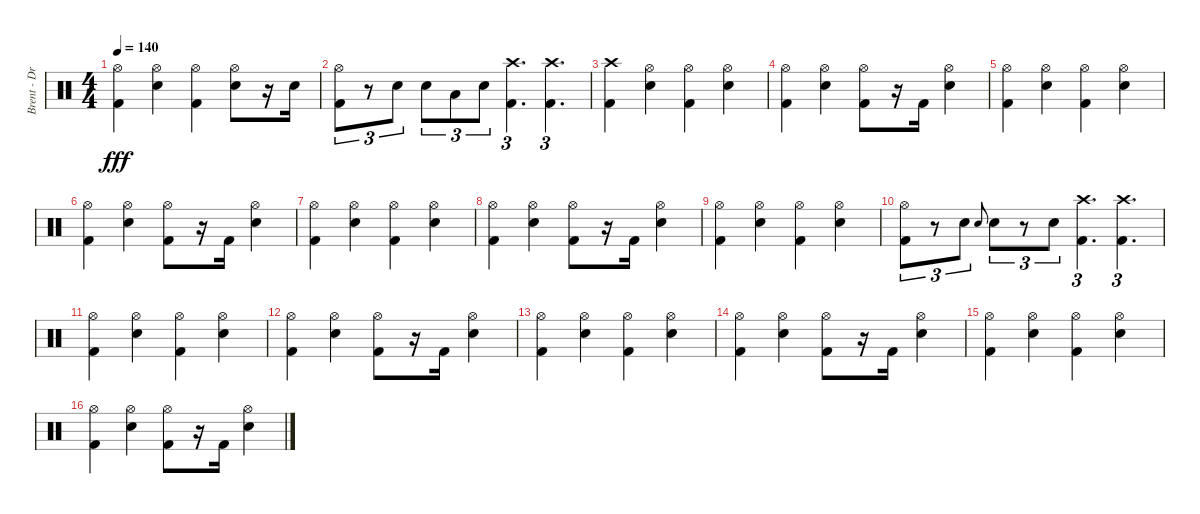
\track ("Brent - Drums" "Brent - Dr") {instrument percussion}
\staff {score}
\articulation defaults
\ts (4 4)
\tempo 140
\clef neutral
\ks c
("Hi-Hat (open)" "Kick (hit) 2").4{dy fff} ("Hi-Hat (open)" "Snare (hit) 2").4 ("Hi-Hat (open)" "Kick (hit) 2").4 ("Hi-Hat (open)" "Snare (hit) 2").8 r.16 "Snare (hit) 2".16 |
("Hi-Hat (open)" "Kick (hit) 2").8{tu (3 2)} r.8{tu (3 2)} "Snare (hit) 2".8{tu (3 2)} "Snare (hit) 2".8{tu (3 2)} "Low Tom (hit)".8{tu (3 2)} "Snare (hit) 2".8{tu (3 2)} ("Crash high (hit)" "Kick (hit) 2").4{d tu (3 2)} ("Crash high (hit)" "Kick (hit) 2").4{d tu (3 2)} |
("Crash high (hit)" "Kick (hit) 2").4 ("Hi-Hat (open)" "Snare (hit) 2").4 ("Hi-Hat (open)" "Kick (hit) 2").4 ("Hi-Hat (open)" "Snare (hit) 2").4 |
("Hi-Hat (open)" "Kick (hit) 2").4 ("Hi-Hat (open)" "Snare (hit) 2").4 ("Hi-Hat (open)" "Kick (hit) 2").8 r.16 "Kick (hit) 2".16 ("Hi-Hat (open)" "Snare (hit) 2").4 |
("Hi-Hat (open)" "Kick (hit) 2").4 ("Hi-Hat (open)" "Snare (hit) 2").4 ("Hi-Hat (open)" "Kick (hit) 2").4 ("Hi-Hat (open)" "Snare (hit) 2").4 |
("Hi-Hat (open)" "Kick (hit) 2").4 ("Hi-Hat (open)" "Snare (hit) 2").4 ("Hi-Hat (open)" "Kick (hit) 2").8 r.16 "Kick (hit) 2".16 ("Hi-Hat (open)" "Snare (hit) 2").4 |
("Hi-Hat (open)" "Kick (hit) 2").4 ("Hi-Hat (open)" "Snare (hit) 2").4 ("Hi-Hat (open)" "Kick (hit) 2").4 ("Hi-Hat (open)" "Snare (hit) 2").4 |
("Hi-Hat (open)" "Kick (hit) 2").4 ("Hi-Hat (open)" "Snare (hit) 2").4 ("Hi-Hat (open)" "Kick (hit) 2").8 r.16 "Kick (hit) 2".16 ("Hi-Hat (open)" "Snare (hit) 2").4 |
("Hi-Hat (open)" "Kick (hit) 2").4 ("Hi-Hat (open)" "Snare (hit) 2").4 ("Hi-Hat (open)" "Kick (hit) 2").4 ("Hi-Hat (open)" "Snare (hit) 2").4 |
("Hi-Hat (open)" "Kick (hit) 2").8{tu (3 2)} r.8{tu (3 2)} "Snare (hit) 2".8{tu (3 2)} "Snare (hit) 2".8{gr onbeat} "Snare (hit) 2".8{tu (3 2)} r.8{tu (3 2)} "Snare (hit) 2".8{tu (3 2)} ("Crash high (hit)" "Kick (hit) 2").4{d tu (3 2)} ("Crash high (hit)" "Kick (hit) 2").4{d tu (3 2)} |
("Hi-Hat (open)" "Kick (hit) 2").4 ("Hi-Hat (open)" "Snare (hit) 2").4 ("Hi-Hat (open)" "Kick (hit) 2").4 ("Hi-Hat (open)" "Snare (hit) 2").4 |
("Hi-Hat (open)" "Kick (hit) 2").4 ("Hi-Hat (open)" "Snare (hit) 2").4 ("Hi-Hat (open)" "Kick (hit) 2").8 r.16 "Kick (hit) 2".16 ("Hi-Hat (open)" "Snare (hit) 2").4 |
("Hi-Hat (open)" "Kick (hit) 2").4 ("Hi-Hat (open)" "Snare (hit) 2").4 ("Hi-Hat (open)" "Kick (hit) 2").4 ("Hi-Hat (open)" "Snare (hit) 2").4 |
("Hi-Hat (open)" "Kick (hit) 2").4 ("Hi-Hat (open)" "Snare (hit) 2").4 ("Hi-Hat (open)" "Kick (hit) 2").8 r.16 "Kick (hit) 2".16 ("Hi-Hat (open)" "Snare (hit) 2").4 |
("Hi-Hat (open)" "Kick (hit) 2").4 ("Hi-Hat (open)" "Snare (hit) 2").4 ("Hi-Hat (open)" "Kick (hit) 2").4 ("Hi-Hat (open)" "Snare (hit) 2").4 |
("Hi-Hat (open)" "Kick (hit) 2").4 ("Hi-Hat (open)" "Snare (hit) 2").4 ("Hi-Hat (open)" "Kick (hit) 2").8 r.16 "Kick (hit) 2".16 ("Hi-Hat (open)" "Snare (hit) 2").4
